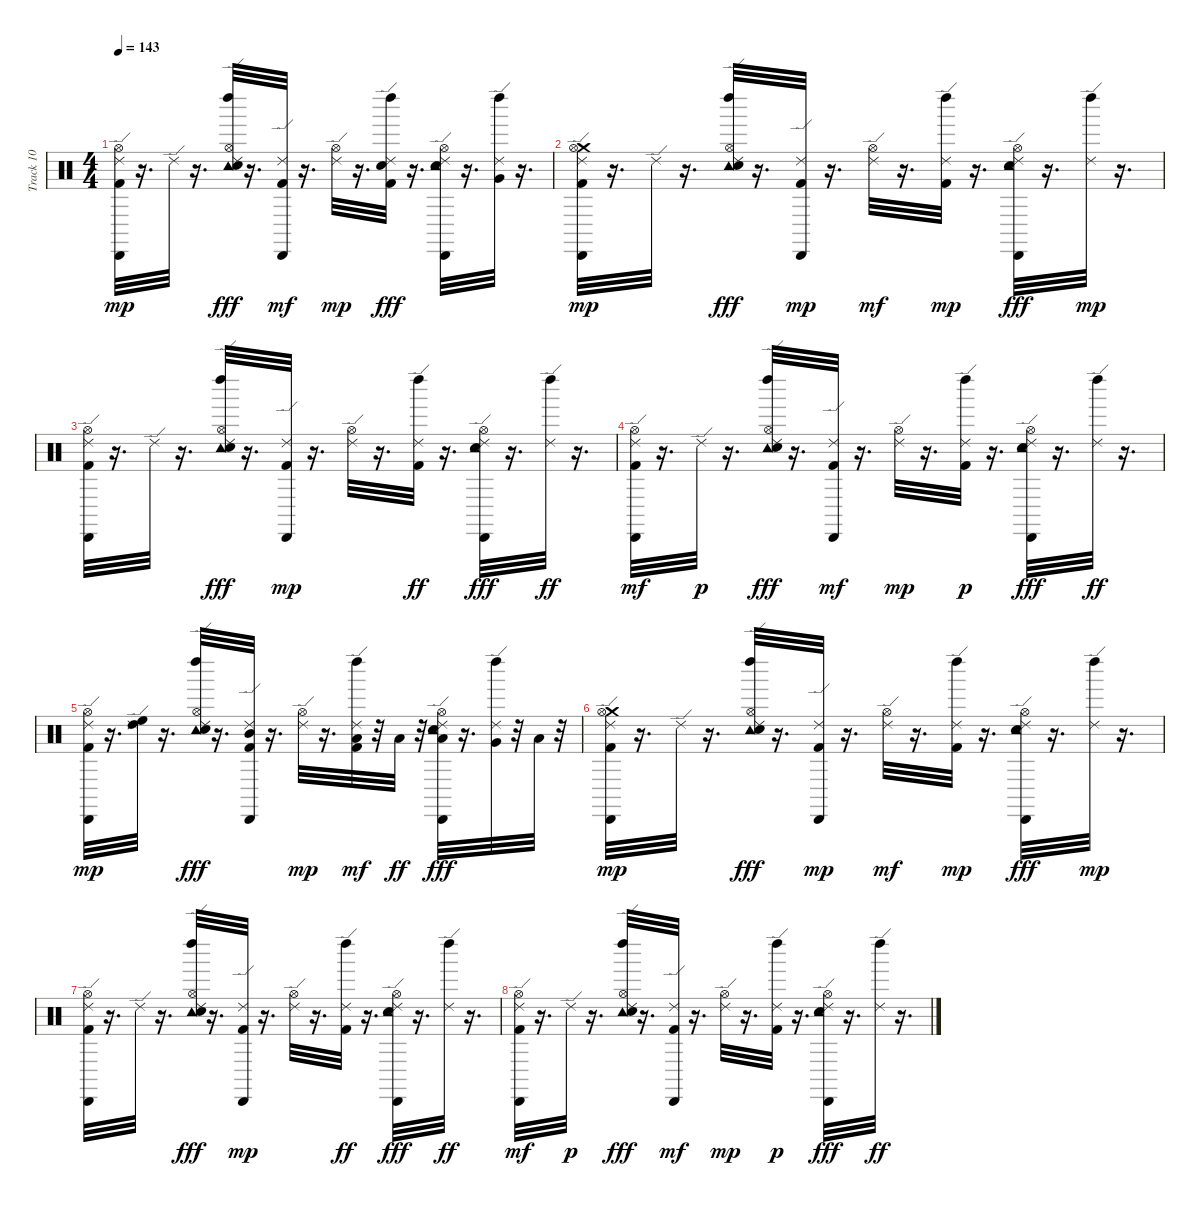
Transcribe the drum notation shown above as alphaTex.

\track ("Track 10" "Track 10") {instrument percussion}
\staff {score}
\articulation defaults
\ts (4 4)
\tempo 143
\clef neutral
\ks c
("Kick (hit) 2" "Ride (edge) 2" "Cabasa (hit)" "Hi-Hat (open)").32{dy mp} r.16{d} "Ride (edge) 2".32 r.16{d} ("Ride (edge) 2" "Tambourine (hit)" "Left Maraca (hit)" "Hi-Hat (open)" "Snare (hit) 2").32{dy fff} r.16{d} ("Kick (hit) 2" "Ride (edge) 2" "Cabasa (hit)").32{dy mf} r.16{d} ("Ride (edge) 2" "Hi-Hat (open)").32{dy mp} r.16{d} ("Kick (hit) 2" "Ride (edge) 2" "Left Maraca (hit)" "Snare (hit) 2").32{dy fff} r.16{d} ("Ride (edge) 2" "Tambourine (hit)" "Cabasa (hit)" "Hi-Hat (open)" "Snare (hit) 2").32 r.16{d} ("Ride (edge) 2" "Left Maraca (hit)" "Very Low Tom (hit)").32 r.16{d} |
("Kick (hit) 2" "Crash medium (hit)" "Ride (edge) 2" "Cabasa (hit)" "Hi-Hat (open)").32{dy mp} r.16{d} "Ride (edge) 2".32 r.16{d} ("Ride (edge) 2" "Tambourine (hit)" "Left Maraca (hit)" "Hi-Hat (open)" "Snare (hit) 2").32{dy fff} r.16{d} ("Kick (hit) 2" "Ride (edge) 2" "Cabasa (hit)").32{dy mp} r.16{d} ("Ride (edge) 2" "Hi-Hat (open)").32{dy mf} r.16{d} ("Kick (hit) 2" "Ride (edge) 2" "Left Maraca (hit)").32{dy mp} r.16{d} ("Ride (edge) 2" "Tambourine (hit)" "Cabasa (hit)" "Hi-Hat (open)" "Snare (hit) 2").32{dy fff} r.16{d} ("Ride (edge) 2" "Left Maraca (hit)").32{dy mp} r.16{d} |
("Kick (hit) 2" "Ride (edge) 2" "Cabasa (hit)" "Hi-Hat (open)").32 r.16{d} "Ride (edge) 2".32 r.16{d} ("Ride (edge) 2" "Tambourine (hit)" "Left Maraca (hit)" "Hi-Hat (open)" "Snare (hit) 2").32{dy fff} r.16{d} ("Kick (hit) 2" "Ride (edge) 2" "Cabasa (hit)").32{dy mp} r.16{d} ("Ride (edge) 2" "Hi-Hat (open)").32 r.16{d} ("Kick (hit) 2" "Ride (edge) 2" "Left Maraca (hit)").32{dy ff} r.16{d} ("Ride (edge) 2" "Tambourine (hit)" "Cabasa (hit)" "Hi-Hat (open)" "Snare (hit) 2").32{dy fff} r.16{d} ("Ride (edge) 2" "Left Maraca (hit)").32{dy ff} r.16{d} |
("Kick (hit) 2" "Ride (edge) 2" "Cabasa (hit)" "Hi-Hat (open)").32{dy mf} r.16{d} "Ride (edge) 2".32{dy p} r.16{d} ("Ride (edge) 2" "Tambourine (hit)" "Left Maraca (hit)" "Hi-Hat (open)" "Snare (hit) 2").32{dy fff} r.16{d} ("Kick (hit) 2" "Ride (edge) 2" "Cabasa (hit)").32{dy mf} r.16{d} ("Ride (edge) 2" "Hi-Hat (open)").32{dy mp} r.16{d} ("Kick (hit) 2" "Ride (edge) 2" "Left Maraca (hit)").32{dy p} r.16{d} ("Ride (edge) 2" "Tambourine (hit)" "Cabasa (hit)" "Hi-Hat (open)" "Snare (hit) 2").32{dy fff} r.16{d} ("Ride (edge) 2" "Left Maraca (hit)").32{dy ff} r.16{d} |
("Kick (hit) 2" "Ride (edge) 2" "Cabasa (hit)" "Hi-Hat (open)").32{dy mp} r.16{d} ("Ride (edge) 2" "High Tom (hit)" "High Floor Tom (hit)").32 r.16{d} ("Ride (edge) 2" "Tambourine (hit)" "Left Maraca (hit)" "Hi-Hat (open)" "Snare (hit) 2").32{dy fff} r.16{d} ("Kick (hit) 2" "Ride (edge) 2" "Cabasa (hit)" "Mid Tom (hit)").32 r.16{d} ("Ride (edge) 2" "Hi-Hat (open)").32{dy mp} r.16{d} ("Kick (hit) 2" "Ride (edge) 2" "Low Tom (hit)" "Left Maraca (hit)").32{dy mf} r.32 "Low Tom (hit)".32{dy ff} r.32 ("Ride (edge) 2" "Tambourine (hit)" "Cabasa (hit)" "Hi-Hat (open)" "Snare (hit) 2" "Low Tom (hit)").32{dy fff} r.16{d} ("Ride (edge) 2" "Left Maraca (hit)" "Very Low Tom (hit)").32 r.32 "Low Floor Tom (hit)".32 r.32 |
("Kick (hit) 2" "Crash medium (hit)" "Ride (edge) 2" "Cabasa (hit)" "Hi-Hat (open)").32{dy mp} r.16{d} "Ride (edge) 2".32 r.16{d} ("Ride (edge) 2" "Tambourine (hit)" "Left Maraca (hit)" "Hi-Hat (open)" "Snare (hit) 2").32{dy fff} r.16{d} ("Kick (hit) 2" "Ride (edge) 2" "Cabasa (hit)").32{dy mp} r.16{d} ("Ride (edge) 2" "Hi-Hat (open)").32{dy mf} r.16{d} ("Kick (hit) 2" "Ride (edge) 2" "Left Maraca (hit)").32{dy mp} r.16{d} ("Ride (edge) 2" "Tambourine (hit)" "Cabasa (hit)" "Hi-Hat (open)" "Snare (hit) 2").32{dy fff} r.16{d} ("Ride (edge) 2" "Left Maraca (hit)").32{dy mp} r.16{d} |
("Kick (hit) 2" "Ride (edge) 2" "Cabasa (hit)" "Hi-Hat (open)").32 r.16{d} "Ride (edge) 2".32 r.16{d} ("Ride (edge) 2" "Tambourine (hit)" "Left Maraca (hit)" "Hi-Hat (open)" "Snare (hit) 2").32{dy fff} r.16{d} ("Kick (hit) 2" "Ride (edge) 2" "Cabasa (hit)").32{dy mp} r.16{d} ("Ride (edge) 2" "Hi-Hat (open)").32 r.16{d} ("Kick (hit) 2" "Ride (edge) 2" "Left Maraca (hit)").32{dy ff} r.16{d} ("Ride (edge) 2" "Tambourine (hit)" "Cabasa (hit)" "Hi-Hat (open)" "Snare (hit) 2").32{dy fff} r.16{d} ("Ride (edge) 2" "Left Maraca (hit)").32{dy ff} r.16{d} |
("Kick (hit) 2" "Ride (edge) 2" "Cabasa (hit)" "Hi-Hat (open)").32{dy mf} r.16{d} "Ride (edge) 2".32{dy p} r.16{d} ("Ride (edge) 2" "Tambourine (hit)" "Left Maraca (hit)" "Hi-Hat (open)" "Snare (hit) 2").32{dy fff} r.16{d} ("Kick (hit) 2" "Ride (edge) 2" "Cabasa (hit)").32{dy mf} r.16{d} ("Ride (edge) 2" "Hi-Hat (open)").32{dy mp} r.16{d} ("Kick (hit) 2" "Ride (edge) 2" "Left Maraca (hit)").32{dy p} r.16{d} ("Ride (edge) 2" "Tambourine (hit)" "Cabasa (hit)" "Hi-Hat (open)" "Snare (hit) 2").32{dy fff} r.16{d} ("Ride (edge) 2" "Left Maraca (hit)").32{dy ff} r.16{d}
